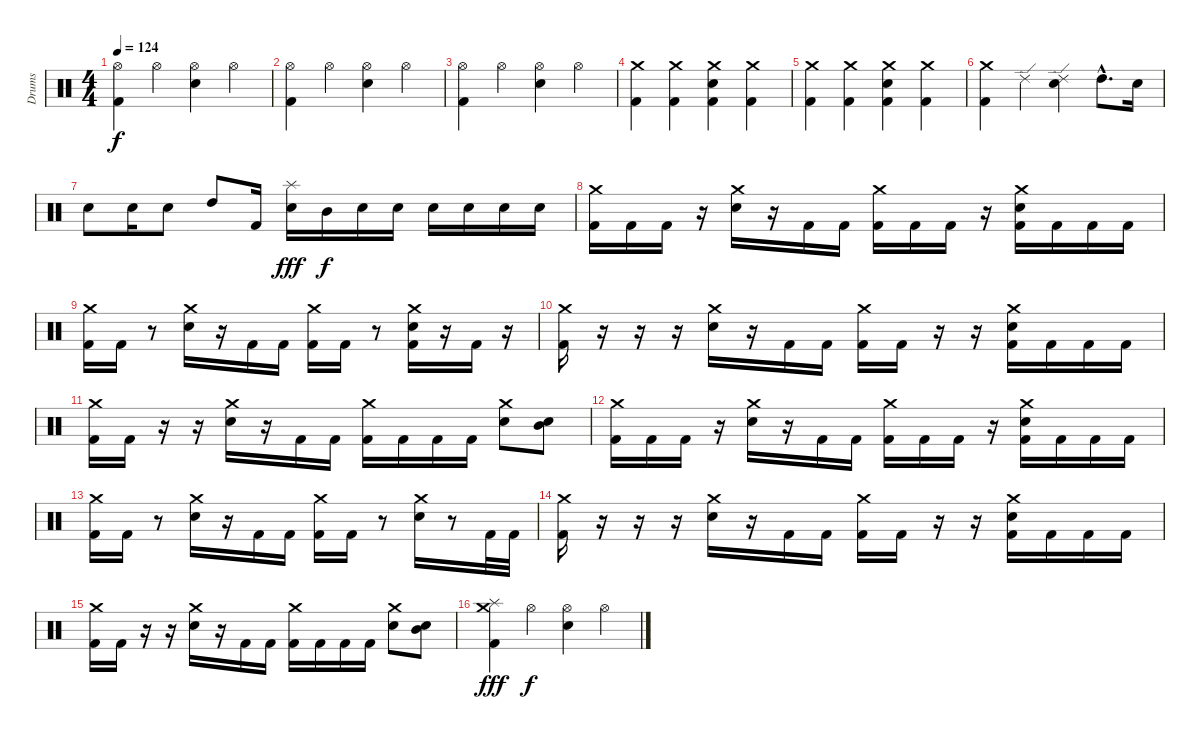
\track ("Drums" "Drums") {instrument percussion}
\staff {score}
\articulation defaults
\ts (4 4)
\tempo 124
\clef neutral
\ks c
("Hi-Hat (open)" "Kick (hit) 2").4{dy f} "Hi-Hat (open)".4 ("Hi-Hat (open)" "Electric Snare (hit)").4 "Hi-Hat (open)".4 |
("Hi-Hat (open)" "Kick (hit) 2").4 "Hi-Hat (open)".4 ("Hi-Hat (open)" "Electric Snare (hit)").4 "Hi-Hat (open)".4 |
("Hi-Hat (open)" "Kick (hit) 2").4 "Hi-Hat (open)".4 ("Hi-Hat (open)" "Electric Snare (hit)").4 "Hi-Hat (open)".4 |
("Crash medium (hit)" "Kick (hit) 2").4 ("Crash medium (hit)" "Kick (hit) 2").4 ("Crash medium (hit)" "Electric Snare (hit)" "Kick (hit) 2").4 ("Crash medium (hit)" "Kick (hit) 2").4 |
("Crash medium (hit)" "Kick (hit) 2").4 ("Crash medium (hit)" "Kick (hit) 2").4 ("Crash medium (hit)" "Electric Snare (hit)" "Kick (hit) 2").4 ("Crash medium (hit)" "Kick (hit) 2").4 |
("Crash medium (hit)" "Kick (hit) 2").4 "Ride (edge) 2".4 ("Ride (edge) 2" "Electric Snare (hit)").4 "High Tom (hit)"{hac}.8{d} "Electric Snare (hit)".16 |
"Electric Snare (hit)".8 "Electric Snare (hit)".16 "Electric Snare (hit)".8 "High Tom (hit)".8 "Kick (hit) 2".16 ("Splash (hit)" "Electric Snare (hit)").16{dy fff} "Mid Tom (hit)".16{dy f} "Electric Snare (hit)".16 "Electric Snare (hit)".16 "Electric Snare (hit)".16 "Electric Snare (hit)".16 "Electric Snare (hit)".16 "Electric Snare (hit)".16 |
("Crash medium (hit)" "Kick (hit) 2").16 "Kick (hit) 2".16 "Kick (hit) 2".16 r.16 ("Crash medium (hit)" "Electric Snare (hit)").16 r.16 "Kick (hit) 2".16 "Kick (hit) 2".16 ("Crash medium (hit)" "Kick (hit) 2").16 "Kick (hit) 2".16 "Kick (hit) 2".16 r.16 ("Crash medium (hit)" "Electric Snare (hit)" "Kick (hit) 2").16 "Kick (hit) 2".16 "Kick (hit) 2".16 "Kick (hit) 2".16 |
("Crash medium (hit)" "Kick (hit) 2").16 "Kick (hit) 2".16 r.8 ("Crash medium (hit)" "Electric Snare (hit)").16 r.16 "Kick (hit) 2".16 "Kick (hit) 2".16 ("Crash medium (hit)" "Kick (hit) 2").16 "Kick (hit) 2".16 r.8 ("Crash medium (hit)" "Electric Snare (hit)" "Kick (hit) 2").16 r.16 "Kick (hit) 2".16 r.16 |
("Crash medium (hit)" "Kick (hit) 2").16 r.16 r.16 r.16 ("Crash medium (hit)" "Electric Snare (hit)").16 r.16 "Kick (hit) 2".16 "Kick (hit) 2".16 ("Crash medium (hit)" "Kick (hit) 2").16 "Kick (hit) 2".16 r.16 r.16 ("Crash medium (hit)" "Electric Snare (hit)" "Kick (hit) 2").16 "Kick (hit) 2".16 "Kick (hit) 2".16 "Kick (hit) 2".16 |
("Crash medium (hit)" "Kick (hit) 2").16 "Kick (hit) 2".16 r.16 r.16 ("Crash medium (hit)" "Electric Snare (hit)").16 r.16 "Kick (hit) 2".16 "Kick (hit) 2".16 ("Crash medium (hit)" "Kick (hit) 2").16 "Kick (hit) 2".16 "Kick (hit) 2".16 "Kick (hit) 2".16 ("Crash medium (hit)" "Electric Snare (hit)").8 ("Mid Tom (hit)" "Electric Snare (hit)").8 |
("Crash medium (hit)" "Kick (hit) 2").16 "Kick (hit) 2".16 "Kick (hit) 2".16 r.16 ("Crash medium (hit)" "Electric Snare (hit)").16 r.16 "Kick (hit) 2".16 "Kick (hit) 2".16 ("Crash medium (hit)" "Kick (hit) 2").16 "Kick (hit) 2".16 "Kick (hit) 2".16 r.16 ("Crash medium (hit)" "Electric Snare (hit)" "Kick (hit) 2").16 "Kick (hit) 2".16 "Kick (hit) 2".16 "Kick (hit) 2".16 |
("Crash medium (hit)" "Kick (hit) 2").16 "Kick (hit) 2".16 r.8 ("Crash medium (hit)" "Electric Snare (hit)").16 r.16 "Kick (hit) 2".16 "Kick (hit) 2".16 ("Crash medium (hit)" "Kick (hit) 2").16 "Kick (hit) 2".16 r.8 ("Crash medium (hit)" "Electric Snare (hit)").16 r.8 "Kick (hit) 2".32 "Kick (hit) 2".32 |
("Crash medium (hit)" "Kick (hit) 2").16 r.16 r.16 r.16 ("Crash medium (hit)" "Electric Snare (hit)").16 r.16 "Kick (hit) 2".16 "Kick (hit) 2".16 ("Crash medium (hit)" "Kick (hit) 2").16 "Kick (hit) 2".16 r.16 r.16 ("Crash medium (hit)" "Electric Snare (hit)" "Kick (hit) 2").16 "Kick (hit) 2".16 "Kick (hit) 2".16 "Kick (hit) 2".16 |
("Crash medium (hit)" "Kick (hit) 2").16 "Kick (hit) 2".16 r.16 r.16 ("Crash medium (hit)" "Electric Snare (hit)").16 r.16 "Kick (hit) 2".16 "Kick (hit) 2".16 ("Crash medium (hit)" "Kick (hit) 2").16 "Kick (hit) 2".16 "Kick (hit) 2".16 "Kick (hit) 2".16 ("Crash medium (hit)" "Electric Snare (hit)").8 ("Mid Tom (hit)" "Electric Snare (hit)").8 |
("Crash medium (hit)" "Splash (hit)" "Kick (hit) 2").4{dy fff} "Hi-Hat (open)".4{dy f} ("Hi-Hat (open)" "Electric Snare (hit)").4 "Hi-Hat (open)".4
